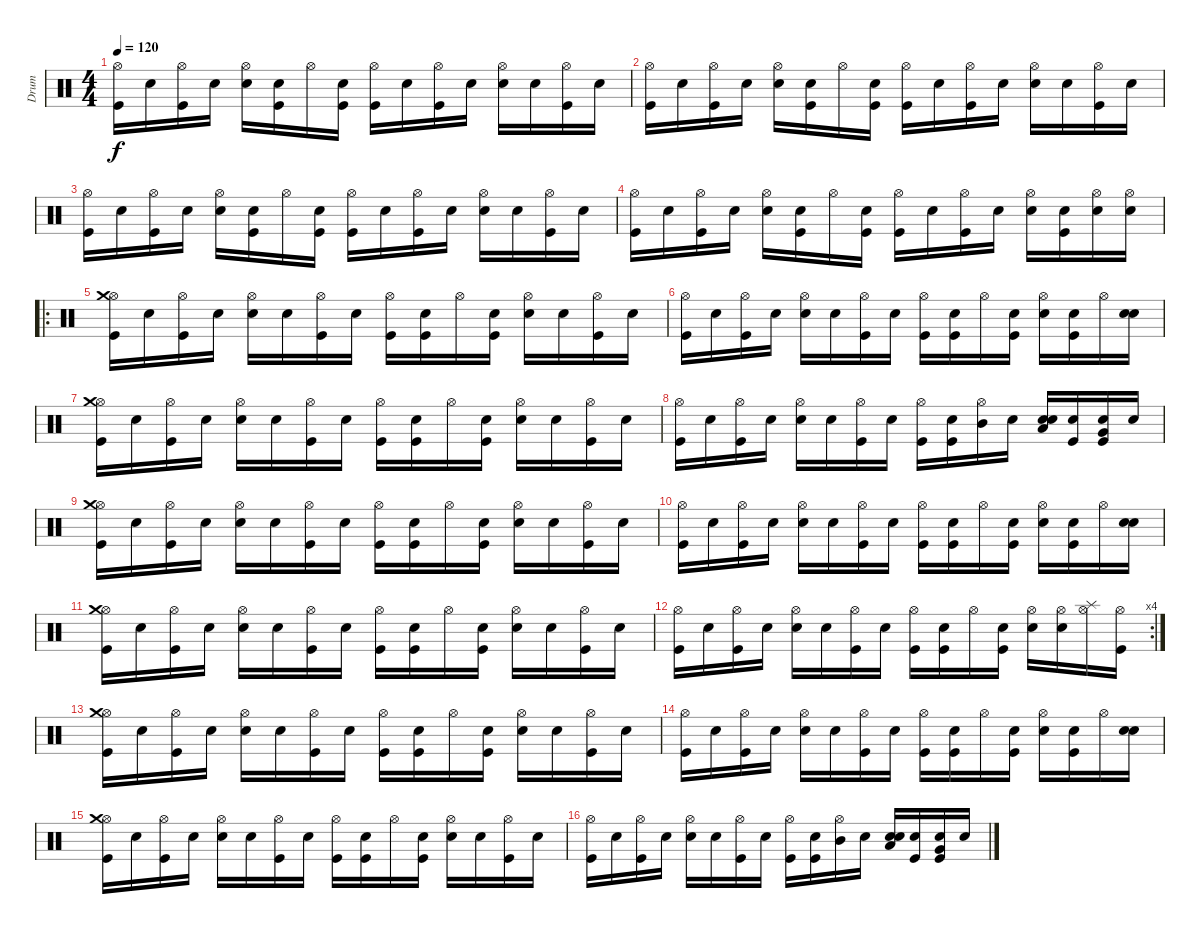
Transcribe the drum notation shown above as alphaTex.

\track ("Drum" "Drum") {instrument percussion}
\staff {score}
\articulation defaults
\ts (4 4)
\tempo 120
\clef neutral
\ks c
("Hi-Hat (open)" "Kick (hit)").16{dy f} "Snare (hit)".16 ("Hi-Hat (open)" "Kick (hit)").16 "Snare (hit)".16 ("Hi-Hat (open)" "Electric Snare (hit)").16 ("Snare (hit)" "Kick (hit)").16 "Hi-Hat (open)".16 ("Snare (hit)" "Kick (hit)").16 ("Hi-Hat (open)" "Kick (hit)").16 "Snare (hit)".16 ("Hi-Hat (open)" "Kick (hit)").16 "Snare (hit)".16 ("Hi-Hat (open)" "Electric Snare (hit)").16 "Snare (hit)".16 ("Hi-Hat (open)" "Kick (hit)").16 "Snare (hit)".16 |
("Hi-Hat (open)" "Kick (hit)").16 "Snare (hit)".16 ("Hi-Hat (open)" "Kick (hit)").16 "Snare (hit)".16 ("Hi-Hat (open)" "Electric Snare (hit)").16 ("Snare (hit)" "Kick (hit)").16 "Hi-Hat (open)".16 ("Snare (hit)" "Kick (hit)").16 ("Hi-Hat (open)" "Kick (hit)").16 "Snare (hit)".16 ("Hi-Hat (open)" "Kick (hit)").16 "Snare (hit)".16 ("Hi-Hat (open)" "Electric Snare (hit)").16 "Snare (hit)".16 ("Hi-Hat (open)" "Kick (hit)").16 "Snare (hit)".16 |
("Hi-Hat (open)" "Kick (hit)").16 "Snare (hit)".16 ("Hi-Hat (open)" "Kick (hit)").16 "Snare (hit)".16 ("Hi-Hat (open)" "Electric Snare (hit)").16 ("Snare (hit)" "Kick (hit)").16 "Hi-Hat (open)".16 ("Snare (hit)" "Kick (hit)").16 ("Hi-Hat (open)" "Kick (hit)").16 "Snare (hit)".16 ("Hi-Hat (open)" "Kick (hit)").16 "Snare (hit)".16 ("Hi-Hat (open)" "Electric Snare (hit)").16 "Snare (hit)".16 ("Hi-Hat (open)" "Kick (hit)").16 "Snare (hit)".16 |
("Hi-Hat (open)" "Kick (hit)").16 "Snare (hit)".16 ("Hi-Hat (open)" "Kick (hit)").16 "Snare (hit)".16 ("Hi-Hat (open)" "Electric Snare (hit)").16 ("Snare (hit)" "Kick (hit)").16 "Hi-Hat (open)".16 ("Snare (hit)" "Kick (hit)").16 ("Hi-Hat (open)" "Kick (hit)").16 "Snare (hit)".16 ("Hi-Hat (open)" "Kick (hit)").16 "Snare (hit)".16 ("Hi-Hat (open)" "Electric Snare (hit)").16 ("Snare (hit)" "Kick (hit)").16 ("Hi-Hat (open)" "Electric Snare (hit)").16 ("Hi-Hat (open)" "Electric Snare (hit)").16 |
\ro
("Hi-Hat (open)" "Crash medium (hit)" "Kick (hit)").16 "Snare (hit)".16 ("Hi-Hat (open)" "Kick (hit)").16 "Snare (hit)".16 ("Hi-Hat (open)" "Electric Snare (hit)").16 "Snare (hit)".16 ("Hi-Hat (open)" "Kick (hit)").16 "Snare (hit)".16 ("Hi-Hat (open)" "Kick (hit)").16 ("Snare (hit)" "Kick (hit)").16 "Hi-Hat (open)".16 ("Snare (hit)" "Kick (hit)").16 ("Hi-Hat (open)" "Electric Snare (hit)").16 "Snare (hit)".16 ("Hi-Hat (open)" "Kick (hit)").16 "Snare (hit)".16 |
("Hi-Hat (open)" "Kick (hit)").16 "Snare (hit)".16 ("Hi-Hat (open)" "Kick (hit)").16 "Snare (hit)".16 ("Hi-Hat (open)" "Electric Snare (hit)").16 "Snare (hit)".16 ("Hi-Hat (open)" "Kick (hit)").16 "Snare (hit)".16 ("Hi-Hat (open)" "Kick (hit)").16 ("Snare (hit)" "Kick (hit)").16 "Hi-Hat (open)".16 ("Snare (hit)" "Kick (hit)").16 ("Hi-Hat (open)" "Electric Snare (hit)").16 ("Snare (hit)" "Kick (hit)").16 "Hi-Hat (open)".16 ("Snare (hit)" "Electric Snare (hit)").16 |
("Hi-Hat (open)" "Crash medium (hit)" "Kick (hit)").16 "Snare (hit)".16 ("Hi-Hat (open)" "Kick (hit)").16 "Snare (hit)".16 ("Hi-Hat (open)" "Electric Snare (hit)").16 "Snare (hit)".16 ("Hi-Hat (open)" "Kick (hit)").16 "Snare (hit)".16 ("Hi-Hat (open)" "Kick (hit)").16 ("Snare (hit)" "Kick (hit)").16 "Hi-Hat (open)".16 ("Snare (hit)" "Kick (hit)").16 ("Hi-Hat (open)" "Electric Snare (hit)").16 "Snare (hit)".16 ("Hi-Hat (open)" "Kick (hit)").16 "Snare (hit)".16 |
("Hi-Hat (open)" "Kick (hit)").16 "Snare (hit)".16 ("Hi-Hat (open)" "Kick (hit)").16 "Snare (hit)".16 ("Hi-Hat (open)" "Electric Snare (hit)").16 "Snare (hit)".16 ("Hi-Hat (open)" "Kick (hit)").16 "Snare (hit)".16 ("Hi-Hat (open)" "Kick (hit)").16 ("Snare (hit)" "Kick (hit)").16 ("Hi-Hat (open)" "Mid Tom (hit)").16 "Snare (hit)".16 ("Snare (hit)" "Low Tom (hit)" "Electric Snare (hit)").16 ("Snare (hit)" "Kick (hit)").16 ("Snare (hit)" "Very Low Tom (hit)" "Kick (hit)").16 "Snare (hit)".16 |
("Hi-Hat (open)" "Crash medium (hit)" "Kick (hit)").16 "Snare (hit)".16 ("Hi-Hat (open)" "Kick (hit)").16 "Snare (hit)".16 ("Hi-Hat (open)" "Electric Snare (hit)").16 "Snare (hit)".16 ("Hi-Hat (open)" "Kick (hit)").16 "Snare (hit)".16 ("Hi-Hat (open)" "Kick (hit)").16 ("Snare (hit)" "Kick (hit)").16 "Hi-Hat (open)".16 ("Snare (hit)" "Kick (hit)").16 ("Hi-Hat (open)" "Electric Snare (hit)").16 "Snare (hit)".16 ("Hi-Hat (open)" "Kick (hit)").16 "Snare (hit)".16 |
("Hi-Hat (open)" "Kick (hit)").16 "Snare (hit)".16 ("Hi-Hat (open)" "Kick (hit)").16 "Snare (hit)".16 ("Hi-Hat (open)" "Electric Snare (hit)").16 "Snare (hit)".16 ("Hi-Hat (open)" "Kick (hit)").16 "Snare (hit)".16 ("Hi-Hat (open)" "Kick (hit)").16 ("Snare (hit)" "Kick (hit)").16 "Hi-Hat (open)".16 ("Snare (hit)" "Kick (hit)").16 ("Hi-Hat (open)" "Electric Snare (hit)").16 ("Snare (hit)" "Kick (hit)").16 "Hi-Hat (open)".16 ("Snare (hit)" "Electric Snare (hit)").16 |
("Hi-Hat (open)" "Crash medium (hit)" "Kick (hit)").16 "Snare (hit)".16 ("Hi-Hat (open)" "Kick (hit)").16 "Snare (hit)".16 ("Hi-Hat (open)" "Electric Snare (hit)").16 "Snare (hit)".16 ("Hi-Hat (open)" "Kick (hit)").16 "Snare (hit)".16 ("Hi-Hat (open)" "Kick (hit)").16 ("Snare (hit)" "Kick (hit)").16 "Hi-Hat (open)".16 ("Snare (hit)" "Kick (hit)").16 ("Hi-Hat (open)" "Electric Snare (hit)").16 "Snare (hit)".16 ("Hi-Hat (open)" "Kick (hit)").16 "Snare (hit)".16 |
\rc 4
("Hi-Hat (open)" "Kick (hit)").16 "Snare (hit)".16 ("Hi-Hat (open)" "Kick (hit)").16 "Snare (hit)".16 ("Hi-Hat (open)" "Electric Snare (hit)").16 "Snare (hit)".16 ("Hi-Hat (open)" "Kick (hit)").16 "Snare (hit)".16 ("Hi-Hat (open)" "Kick (hit)").16 ("Snare (hit)" "Kick (hit)").16 "Hi-Hat (open)".16 ("Snare (hit)" "Kick (hit)").16 ("Hi-Hat (open)" "Electric Snare (hit)").16 ("Hi-Hat (open)" "Electric Snare (hit)").16 ("Hi-Hat (open)" "Splash (hit)").16 ("Hi-Hat (open)" "Kick (hit)").16 |
("Hi-Hat (open)" "Crash medium (hit)" "Kick (hit)").16 "Snare (hit)".16 ("Hi-Hat (open)" "Kick (hit)").16 "Snare (hit)".16 ("Hi-Hat (open)" "Electric Snare (hit)").16 "Snare (hit)".16 ("Hi-Hat (open)" "Kick (hit)").16 "Snare (hit)".16 ("Hi-Hat (open)" "Kick (hit)").16 ("Snare (hit)" "Kick (hit)").16 "Hi-Hat (open)".16 ("Snare (hit)" "Kick (hit)").16 ("Hi-Hat (open)" "Electric Snare (hit)").16 "Snare (hit)".16 ("Hi-Hat (open)" "Kick (hit)").16 "Snare (hit)".16 |
("Hi-Hat (open)" "Kick (hit)").16 "Snare (hit)".16 ("Hi-Hat (open)" "Kick (hit)").16 "Snare (hit)".16 ("Hi-Hat (open)" "Electric Snare (hit)").16 "Snare (hit)".16 ("Hi-Hat (open)" "Kick (hit)").16 "Snare (hit)".16 ("Hi-Hat (open)" "Kick (hit)").16 ("Snare (hit)" "Kick (hit)").16 "Hi-Hat (open)".16 ("Snare (hit)" "Kick (hit)").16 ("Hi-Hat (open)" "Electric Snare (hit)").16 ("Snare (hit)" "Kick (hit)").16 "Hi-Hat (open)".16 ("Snare (hit)" "Electric Snare (hit)").16 |
("Hi-Hat (open)" "Crash medium (hit)" "Kick (hit)").16 "Snare (hit)".16 ("Hi-Hat (open)" "Kick (hit)").16 "Snare (hit)".16 ("Hi-Hat (open)" "Electric Snare (hit)").16 "Snare (hit)".16 ("Hi-Hat (open)" "Kick (hit)").16 "Snare (hit)".16 ("Hi-Hat (open)" "Kick (hit)").16 ("Snare (hit)" "Kick (hit)").16 "Hi-Hat (open)".16 ("Snare (hit)" "Kick (hit)").16 ("Hi-Hat (open)" "Electric Snare (hit)").16 "Snare (hit)".16 ("Hi-Hat (open)" "Kick (hit)").16 "Snare (hit)".16 |
("Hi-Hat (open)" "Kick (hit)").16 "Snare (hit)".16 ("Hi-Hat (open)" "Kick (hit)").16 "Snare (hit)".16 ("Hi-Hat (open)" "Electric Snare (hit)").16 "Snare (hit)".16 ("Hi-Hat (open)" "Kick (hit)").16 "Snare (hit)".16 ("Hi-Hat (open)" "Kick (hit)").16 ("Snare (hit)" "Kick (hit)").16 ("Hi-Hat (open)" "Mid Tom (hit)").16 "Snare (hit)".16 ("Snare (hit)" "Low Tom (hit)" "Electric Snare (hit)").16 ("Snare (hit)" "Kick (hit)").16 ("Snare (hit)" "Very Low Tom (hit)" "Kick (hit)").16 "Snare (hit)".16
